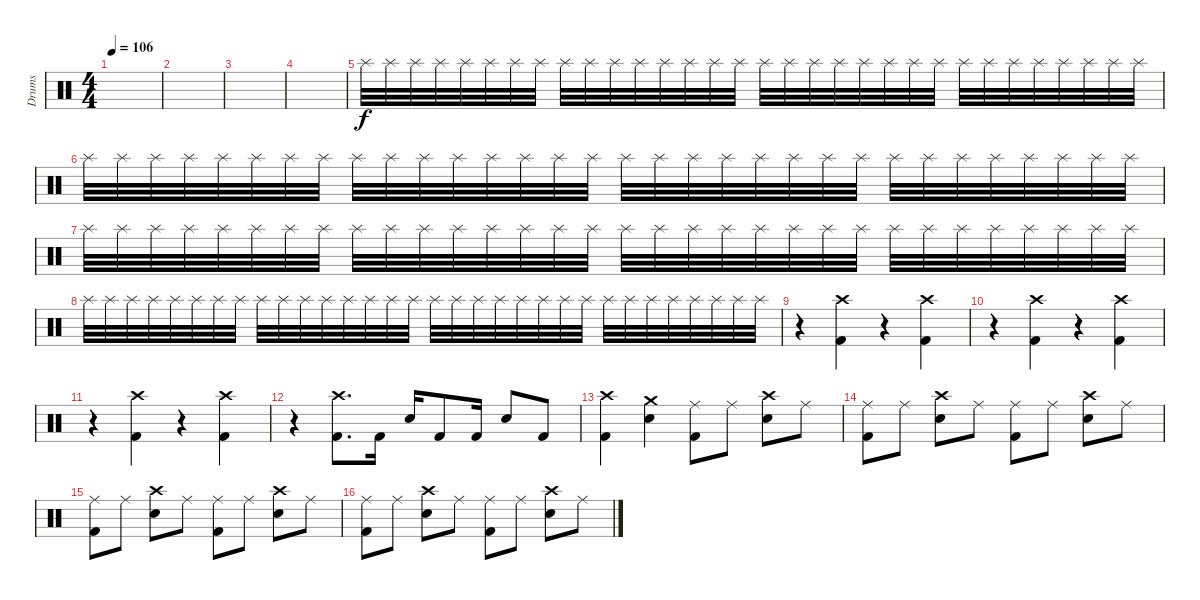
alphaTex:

\track ("Drums" "Drums") {instrument percussion}
\staff {score}
\articulation defaults
\ts (4 4)
\tempo 106
\clef neutral
\ks c
|
|
|
|
"Splash (hit)".32{volume 13} "Splash (hit)".32 "Splash (hit)".32 "Splash (hit)".32 "Splash (hit)".32 "Splash (hit)".32 "Splash (hit)".32 "Splash (hit)".32 "Splash (hit)".32 "Splash (hit)".32 "Splash (hit)".32 "Splash (hit)".32 "Splash (hit)".32 "Splash (hit)".32 "Splash (hit)".32 "Splash (hit)".32 "Splash (hit)".32 "Splash (hit)".32 "Splash (hit)".32 "Splash (hit)".32 "Splash (hit)".32 "Splash (hit)".32 "Splash (hit)".32 "Splash (hit)".32 "Splash (hit)".32 "Splash (hit)".32 "Splash (hit)".32 "Splash (hit)".32 "Splash (hit)".32 "Splash (hit)".32 "Splash (hit)".32 "Splash (hit)".32 |
"Splash (hit)".32 "Splash (hit)".32 "Splash (hit)".32 "Splash (hit)".32 "Splash (hit)".32 "Splash (hit)".32 "Splash (hit)".32 "Splash (hit)".32 "Splash (hit)".32 "Splash (hit)".32 "Splash (hit)".32 "Splash (hit)".32 "Splash (hit)".32 "Splash (hit)".32 "Splash (hit)".32 "Splash (hit)".32 "Splash (hit)".32 "Splash (hit)".32 "Splash (hit)".32 "Splash (hit)".32 "Splash (hit)".32 "Splash (hit)".32 "Splash (hit)".32 "Splash (hit)".32 "Splash (hit)".32 "Splash (hit)".32 "Splash (hit)".32 "Splash (hit)".32 "Splash (hit)".32 "Splash (hit)".32 "Splash (hit)".32 "Splash (hit)".32 |
"Splash (hit)".32 "Splash (hit)".32 "Splash (hit)".32 "Splash (hit)".32 "Splash (hit)".32 "Splash (hit)".32 "Splash (hit)".32 "Splash (hit)".32 "Splash (hit)".32 "Splash (hit)".32 "Splash (hit)".32 "Splash (hit)".32 "Splash (hit)".32 "Splash (hit)".32 "Splash (hit)".32 "Splash (hit)".32 "Splash (hit)".32 "Splash (hit)".32 "Splash (hit)".32 "Splash (hit)".32 "Splash (hit)".32 "Splash (hit)".32 "Splash (hit)".32 "Splash (hit)".32 "Splash (hit)".32 "Splash (hit)".32 "Splash (hit)".32 "Splash (hit)".32 "Splash (hit)".32 "Splash (hit)".32 "Splash (hit)".32 "Splash (hit)".32 |
"Splash (hit)".32 "Splash (hit)".32 "Splash (hit)".32 "Splash (hit)".32 "Splash (hit)".32 "Splash (hit)".32 "Splash (hit)".32 "Splash (hit)".32 "Splash (hit)".32 "Splash (hit)".32 "Splash (hit)".32 "Splash (hit)".32 "Splash (hit)".32 "Splash (hit)".32 "Splash (hit)".32 "Splash (hit)".32 "Splash (hit)".32 "Splash (hit)".32 "Splash (hit)".32 "Splash (hit)".32 "Splash (hit)".32 "Splash (hit)".32 "Splash (hit)".32 "Splash (hit)".32 "Splash (hit)".32 "Splash (hit)".32 "Splash (hit)".32 "Splash (hit)".32 "Splash (hit)".32 "Splash (hit)".32 "Splash (hit)".32 "Splash (hit)".32 |
r.4 ("Crash high (hit)" "Kick (hit) 2").4 r.4 ("Crash high (hit)" "Kick (hit) 2").4 |
r.4 ("Crash high (hit)" "Kick (hit) 2").4 r.4 ("Crash high (hit)" "Kick (hit) 2").4 |
r.4 ("Crash high (hit)" "Kick (hit) 2").4 r.4 ("Crash high (hit)" "Kick (hit) 2").4 |
r.4 ("Crash high (hit)" "Kick (hit) 2").8{d} "Kick (hit) 2".16 "Electric Snare (hit)".16 "Kick (hit) 2".8 "Kick (hit) 2".16 "Electric Snare (hit)".8 "Kick (hit) 2".8 |
("Crash high (hit)" "Kick (hit) 2").4 ("Crash medium (hit)" "Electric Snare (hit)").4 ("Ride (middle)" "Kick (hit) 2").8 "Ride (middle)".8 ("Crash high (hit)" "Electric Snare (hit)").8 "Ride (middle)".8 |
("Ride (middle)" "Kick (hit) 2").8 "Ride (middle)".8 ("Crash high (hit)" "Electric Snare (hit)").8 "Ride (middle)".8 ("Ride (middle)" "Kick (hit) 2").8 "Ride (middle)".8 ("Crash high (hit)" "Electric Snare (hit)").8 "Ride (middle)".8 |
("Ride (middle)" "Kick (hit) 2").8 "Ride (middle)".8 ("Crash high (hit)" "Electric Snare (hit)").8 "Ride (middle)".8 ("Ride (middle)" "Kick (hit) 2").8 "Ride (middle)".8 ("Crash high (hit)" "Electric Snare (hit)").8 "Ride (middle)".8 |
("Ride (middle)" "Kick (hit) 2").8 "Ride (middle)".8 ("Crash high (hit)" "Electric Snare (hit)").8 "Ride (middle)".8 ("Ride (middle)" "Kick (hit) 2").8 "Ride (middle)".8 ("Crash high (hit)" "Electric Snare (hit)").8 "Ride (middle)".8
